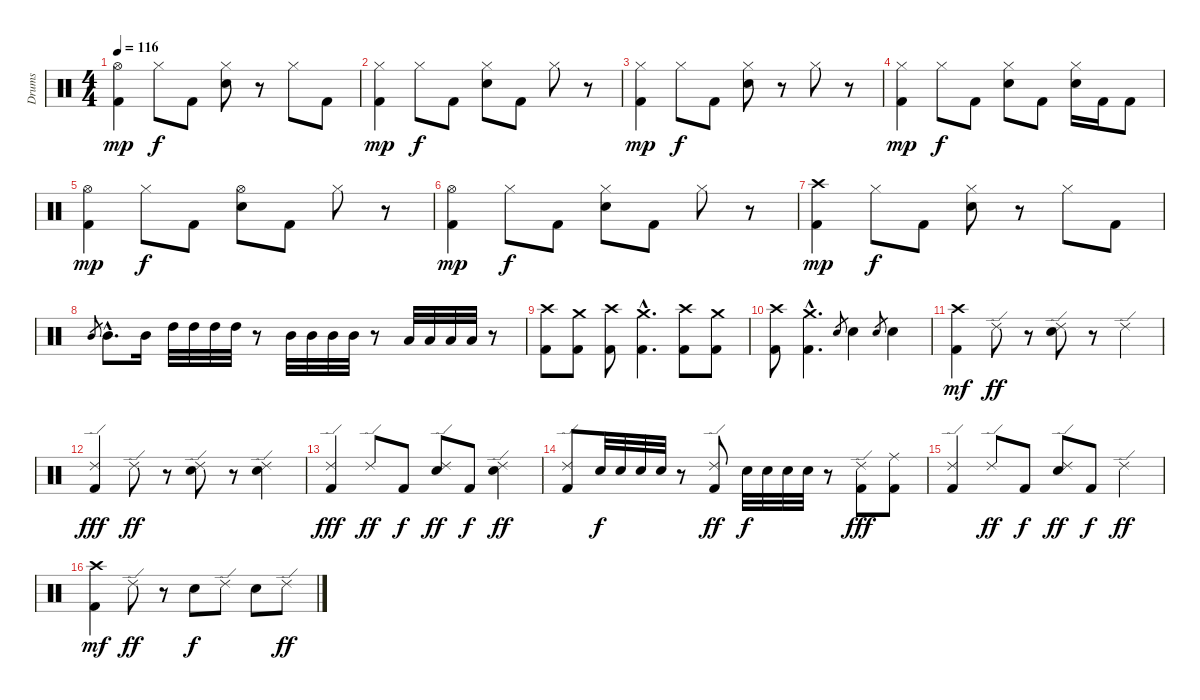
\track ("Drums" "Drums") {instrument percussion}
\staff {score}
\articulation defaults
\ts (4 4)
\tempo 116
\clef neutral
\ks c
("Hi-Hat (open)" "Kick (hit) 2").4{dy mp} "Hi-Hat (closed)".8{dy f} "Kick (hit) 2".8 ("Hi-Hat (closed)" "Snare (hit) 2").8 r.8 "Hi-Hat (closed)".8 "Kick (hit) 2".8 |
("Hi-Hat (closed)" "Kick (hit) 2").4{dy mp} "Hi-Hat (closed)".8{dy f} "Kick (hit) 2".8 ("Hi-Hat (closed)" "Snare (hit) 2").8 "Kick (hit) 2".8 "Hi-Hat (closed)".8 r.8 |
("Hi-Hat (closed)" "Kick (hit) 2").4{dy mp} "Hi-Hat (closed)".8{dy f} "Kick (hit) 2".8 ("Hi-Hat (closed)" "Snare (hit) 2").8 r.8 "Hi-Hat (closed)".8 r.8 |
("Hi-Hat (closed)" "Kick (hit) 2").4{dy mp} "Hi-Hat (closed)".8{dy f} "Kick (hit) 2".8 ("Hi-Hat (closed)" "Snare (hit) 2").8 "Kick (hit) 2".8 ("Hi-Hat (closed)" "Snare (hit) 2").16 "Kick (hit) 2".16 "Kick (hit) 2".8 |
("Hi-Hat (open)" "Kick (hit) 2").4{dy mp} "Hi-Hat (closed)".8{dy f} "Kick (hit) 2".8 ("Hi-Hat (open)" "Snare (hit) 2").8 "Kick (hit) 2".8 "Hi-Hat (closed)".8 r.8 |
("Hi-Hat (open)" "Kick (hit) 2").4{dy mp} "Hi-Hat (closed)".8{dy f} "Kick (hit) 2".8 ("Hi-Hat (closed)" "Snare (hit) 2").8 "Kick (hit) 2".8 "Hi-Hat (closed)".8 r.8 |
("Crash high (hit)" "Kick (hit) 2").4{dy mp} "Hi-Hat (closed)".8{dy f} "Kick (hit) 2".8 ("Hi-Hat (closed)" "Snare (hit) 2").8 r.8 "Hi-Hat (closed)".8 "Kick (hit) 2".8 |
"Mid Tom (hit)".8{gr} "Mid Tom (hit)"{hac}.8{d} "Mid Tom (hit)".16 "High Tom (hit)".32 "High Tom (hit)".32 "High Tom (hit)".32 "High Tom (hit)".32 r.8 "Mid Tom (hit)".32 "Mid Tom (hit)".32 "Mid Tom (hit)".32 "Mid Tom (hit)".32 r.8 "Low Tom (hit)".32 "Low Tom (hit)".32 "Low Tom (hit)".32 "Low Tom (hit)".32 r.8 |
("Crash high (hit)" "Kick (hit) 2").8 ("Crash medium (hit)" "Kick (hit) 2").8 ("Crash high (hit)" "Kick (hit) 2").8 ("Crash medium (hit)"{hac} "Kick (hit) 2"{hac}).4{d} ("Crash high (hit)" "Kick (hit) 2").8 ("Crash medium (hit)" "Kick (hit) 2").8 |
("Crash high (hit)" "Kick (hit) 2").8 ("Crash medium (hit)"{hac} "Kick (hit) 2"{hac}).4{d} "Snare (hit) 2".8{gr} "Snare (hit) 2".4 "Snare (hit) 2".8{gr} "Snare (hit) 2".4 |
("Crash high (hit)" "Kick (hit) 2").4{dy mf} "Ride (edge) 2".8{dy ff} r.8 ("Ride (edge) 2" "Snare (hit) 2").8 r.8 "Ride (edge) 2".4 |
("Ride (edge) 2" "Kick (hit) 2").4{dy fff} "Ride (edge) 2".8{dy ff} r.8 ("Ride (edge) 2" "Snare (hit) 2").8 r.8 ("Ride (edge) 2" "Snare (hit) 2").4 |
("Ride (edge) 2" "Kick (hit) 2").4{dy fff} "Ride (edge) 2".8{dy ff} "Kick (hit) 2".8{dy f} ("Ride (edge) 2" "Snare (hit) 2").8{dy ff} "Kick (hit) 2".8{dy f} ("Ride (edge) 2" "Snare (hit) 2").4{dy ff} |
("Ride (edge) 2" "Kick (hit) 2").8 "Snare (hit) 2".32{dy f} "Snare (hit) 2".32 "Snare (hit) 2".32 "Snare (hit) 2".32 r.8 ("Ride (edge) 2" "Kick (hit) 2").8{dy ff} "Snare (hit) 2".32{dy f} "Snare (hit) 2".32 "Snare (hit) 2".32 "Snare (hit) 2".32 r.8 ("Ride (edge) 2" "Kick (hit) 2").8{dy fff} ("Ride (middle)" "Kick (hit) 2").8 |
("Ride (edge) 2" "Kick (hit) 2").4 "Ride (edge) 2".8{dy ff} "Kick (hit) 2".8{dy f} ("Ride (edge) 2" "Snare (hit) 2").8{dy ff} "Kick (hit) 2".8{dy f} "Ride (edge) 2".4{dy ff} |
("Crash high (hit)" "Kick (hit) 2").4{dy mf} "Ride (edge) 2".8{dy ff} r.8 "Snare (hit) 2".8{dy f} "Ride (edge) 2".8 "Snare (hit) 2".8 "Ride (edge) 2".8{dy ff}
